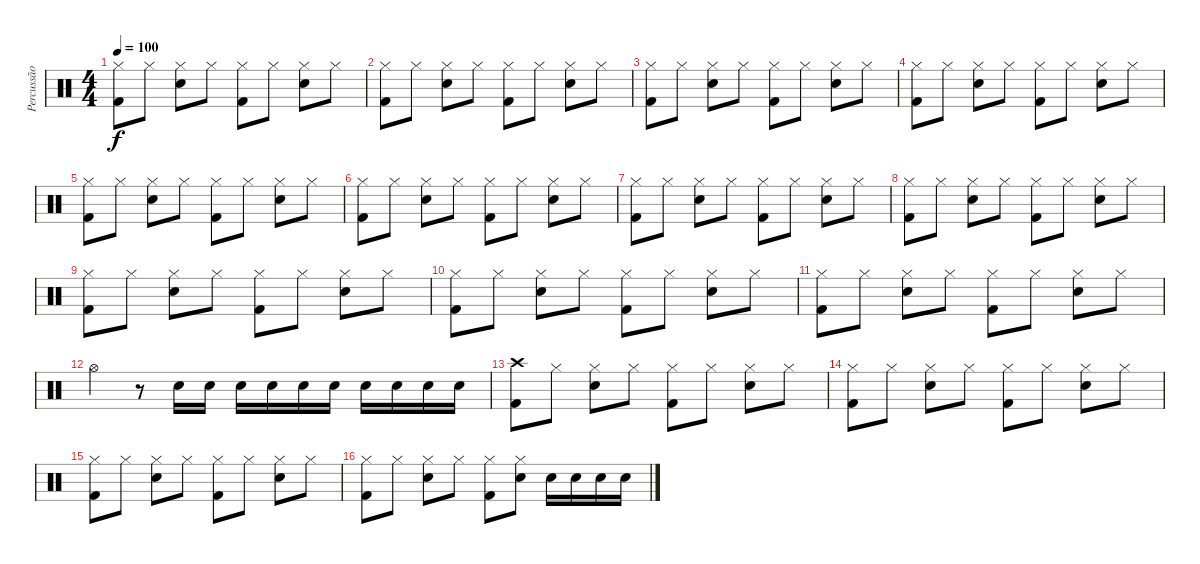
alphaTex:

\track ("Percussão" "Percussão") {instrument percussion}
\staff {score}
\articulation defaults
\ts (4 4)
\tempo 100
\clef neutral
\ks c
("Hi-Hat (closed)" "Kick (hit) 2").8{dy f} "Hi-Hat (closed)".8 ("Hi-Hat (closed)" "Snare (hit) 2").8 "Hi-Hat (closed)".8 ("Hi-Hat (closed)" "Kick (hit) 2").8 "Hi-Hat (closed)".8 ("Hi-Hat (closed)" "Snare (hit) 2").8 "Hi-Hat (closed)".8 |
("Hi-Hat (closed)" "Kick (hit) 2").8 "Hi-Hat (closed)".8 ("Hi-Hat (closed)" "Snare (hit) 2").8 "Hi-Hat (closed)".8 ("Hi-Hat (closed)" "Kick (hit) 2").8 "Hi-Hat (closed)".8 ("Hi-Hat (closed)" "Snare (hit) 2").8 "Hi-Hat (closed)".8 |
("Hi-Hat (closed)" "Kick (hit) 2").8 "Hi-Hat (closed)".8 ("Hi-Hat (closed)" "Snare (hit) 2").8 "Hi-Hat (closed)".8 ("Hi-Hat (closed)" "Kick (hit) 2").8 "Hi-Hat (closed)".8 ("Hi-Hat (closed)" "Snare (hit) 2").8 "Hi-Hat (closed)".8 |
("Hi-Hat (closed)" "Kick (hit) 2").8 "Hi-Hat (closed)".8 ("Hi-Hat (closed)" "Snare (hit) 2").8 "Hi-Hat (closed)".8 ("Hi-Hat (closed)" "Kick (hit) 2").8 "Hi-Hat (closed)".8 ("Hi-Hat (closed)" "Snare (hit) 2").8 "Hi-Hat (closed)".8 |
("Hi-Hat (closed)" "Kick (hit) 2").8 "Hi-Hat (closed)".8 ("Hi-Hat (closed)" "Snare (hit) 2").8 "Hi-Hat (closed)".8 ("Hi-Hat (closed)" "Kick (hit) 2").8 "Hi-Hat (closed)".8 ("Hi-Hat (closed)" "Snare (hit) 2").8 "Hi-Hat (closed)".8 |
("Hi-Hat (closed)" "Kick (hit) 2").8 "Hi-Hat (closed)".8 ("Hi-Hat (closed)" "Snare (hit) 2").8 "Hi-Hat (closed)".8 ("Hi-Hat (closed)" "Kick (hit) 2").8 "Hi-Hat (closed)".8 ("Hi-Hat (closed)" "Snare (hit) 2").8 "Hi-Hat (closed)".8 |
("Hi-Hat (closed)" "Kick (hit) 2").8 "Hi-Hat (closed)".8 ("Hi-Hat (closed)" "Snare (hit) 2").8 "Hi-Hat (closed)".8 ("Hi-Hat (closed)" "Kick (hit) 2").8 "Hi-Hat (closed)".8 ("Hi-Hat (closed)" "Snare (hit) 2").8 "Hi-Hat (closed)".8 |
("Hi-Hat (closed)" "Kick (hit) 2").8 "Hi-Hat (closed)".8 ("Hi-Hat (closed)" "Snare (hit) 2").8 "Hi-Hat (closed)".8 ("Hi-Hat (closed)" "Kick (hit) 2").8 "Hi-Hat (closed)".8 ("Hi-Hat (closed)" "Snare (hit) 2").8 "Hi-Hat (closed)".8 |
("Hi-Hat (closed)" "Kick (hit) 2").8 "Hi-Hat (closed)".8 ("Hi-Hat (closed)" "Snare (hit) 2").8 "Hi-Hat (closed)".8 ("Hi-Hat (closed)" "Kick (hit) 2").8 "Hi-Hat (closed)".8 ("Hi-Hat (closed)" "Snare (hit) 2").8 "Hi-Hat (closed)".8 |
("Hi-Hat (closed)" "Kick (hit) 2").8 "Hi-Hat (closed)".8 ("Hi-Hat (closed)" "Snare (hit) 2").8 "Hi-Hat (closed)".8 ("Hi-Hat (closed)" "Kick (hit) 2").8 "Hi-Hat (closed)".8 ("Hi-Hat (closed)" "Snare (hit) 2").8 "Hi-Hat (closed)".8 |
("Hi-Hat (closed)" "Kick (hit) 2").8 "Hi-Hat (closed)".8 ("Hi-Hat (closed)" "Snare (hit) 2").8 "Hi-Hat (closed)".8 ("Hi-Hat (closed)" "Kick (hit) 2").8 "Hi-Hat (closed)".8 ("Hi-Hat (closed)" "Snare (hit) 2").8 "Hi-Hat (closed)".8 |
"Hi-Hat (open)".4 r.8 "Snare (hit) 2".16 "Snare (hit) 2".16 "Snare (hit) 2".16 "Snare (hit) 2".16 "Snare (hit) 2".16 "Snare (hit) 2".16 "Snare (hit) 2".16 "Snare (hit) 2".16 "Snare (hit) 2".16 "Snare (hit) 2".16 |
("Crash high (hit)" "Kick (hit) 2").8 "Hi-Hat (closed)".8 ("Hi-Hat (closed)" "Snare (hit) 2").8 "Hi-Hat (closed)".8 ("Hi-Hat (closed)" "Kick (hit) 2").8 "Hi-Hat (closed)".8 ("Hi-Hat (closed)" "Snare (hit) 2").8 "Hi-Hat (closed)".8 |
("Hi-Hat (closed)" "Kick (hit) 2").8 "Hi-Hat (closed)".8 ("Hi-Hat (closed)" "Snare (hit) 2").8 "Hi-Hat (closed)".8 ("Hi-Hat (closed)" "Kick (hit) 2").8 "Hi-Hat (closed)".8 ("Hi-Hat (closed)" "Snare (hit) 2").8 "Hi-Hat (closed)".8 |
("Hi-Hat (closed)" "Kick (hit) 2").8 "Hi-Hat (closed)".8 ("Hi-Hat (closed)" "Snare (hit) 2").8 "Hi-Hat (closed)".8 ("Hi-Hat (closed)" "Kick (hit) 2").8 "Hi-Hat (closed)".8 ("Hi-Hat (closed)" "Snare (hit) 2").8 "Hi-Hat (closed)".8 |
("Hi-Hat (closed)" "Kick (hit) 2").8 "Hi-Hat (closed)".8 ("Hi-Hat (closed)" "Snare (hit) 2").8 "Hi-Hat (closed)".8 ("Hi-Hat (closed)" "Kick (hit) 2").8 ("Hi-Hat (closed)" "Snare (hit) 2").8 "Snare (hit) 2".16 "Snare (hit) 2".16 "Snare (hit) 2".16 "Snare (hit) 2".16
